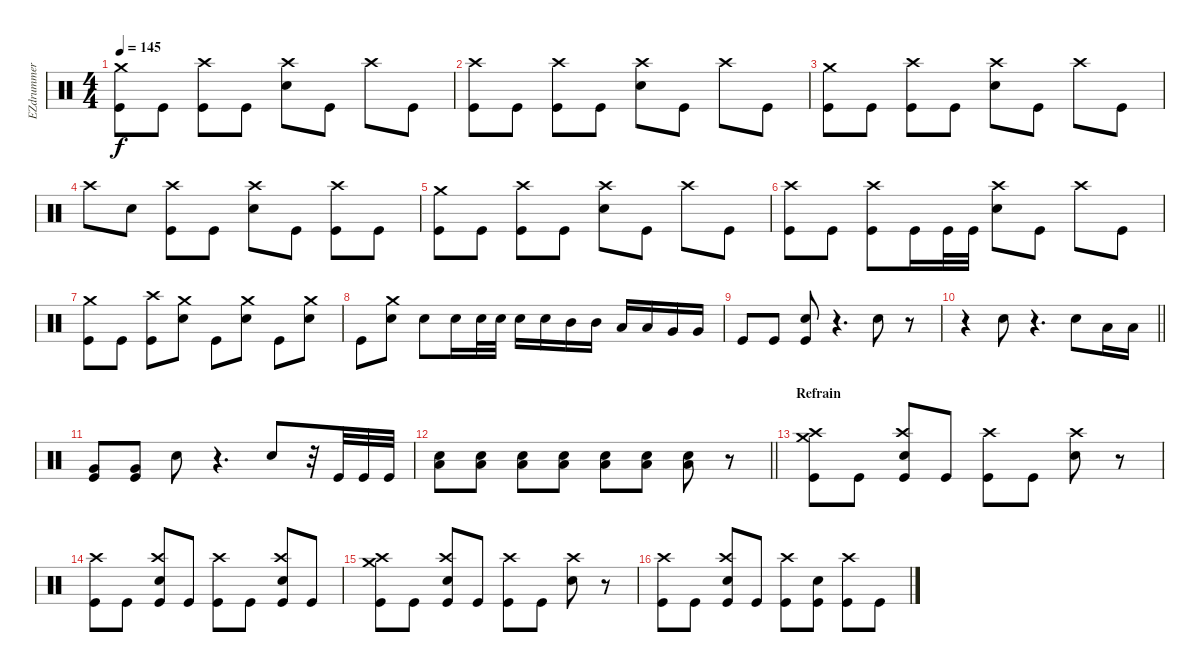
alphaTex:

\track ("EZdrummer 01" "EZdrummer ") {instrument percussion}
\staff {score}
\articulation defaults
\ts (4 4)
\tempo 145
\clef neutral
\ks c
("Kick (hit)" "Crash medium (hit)").8{dy f} "Kick (hit)".8 ("Kick (hit)" "Crash high (hit)").8 "Kick (hit)".8 ("Snare (hit) 2" "Crash high (hit)").8 "Kick (hit)".8 "Crash high (hit)".8 "Kick (hit)".8 |
("Kick (hit)" "Crash high (hit)").8 "Kick (hit)".8 ("Kick (hit)" "Crash high (hit)").8 "Kick (hit)".8 ("Snare (hit) 2" "Crash high (hit)").8 "Kick (hit)".8 "Crash high (hit)".8 "Kick (hit)".8 |
("Kick (hit)" "Crash medium (hit)").8 "Kick (hit)".8 ("Kick (hit)" "Crash high (hit)").8 "Kick (hit)".8 ("Snare (hit) 2" "Crash high (hit)").8 "Kick (hit)".8 "Crash high (hit)".8 "Kick (hit)".8 |
"Crash high (hit)".8 "Snare (hit) 2".8 ("Kick (hit)" "Crash high (hit)").8 "Kick (hit)".8 ("Snare (hit) 2" "Crash high (hit)").8 "Kick (hit)".8 ("Kick (hit)" "Crash high (hit)").8 "Kick (hit)".8 |
("Crash medium (hit)" "Kick (hit)").8 "Kick (hit)".8 ("Crash high (hit)" "Kick (hit)").8 "Kick (hit)".8 ("Crash high (hit)" "Snare (hit) 2").8 "Kick (hit)".8 "Crash high (hit)".8 "Kick (hit)".8 |
("Crash high (hit)" "Kick (hit)").8 "Kick (hit)".8 ("Crash high (hit)" "Kick (hit)").8 "Kick (hit)".16 "Kick (hit)".32 "Kick (hit)".32 ("Crash high (hit)" "Snare (hit) 2").8 "Kick (hit)".8 "Crash high (hit)".8 "Kick (hit)".8 |
("Crash medium (hit)" "Kick (hit)").8 "Kick (hit)".8 ("Crash high (hit)" "Kick (hit)").8 ("Snare (hit) 2" "Crash medium (hit)").8 "Kick (hit)".8 ("Snare (hit) 2" "Crash medium (hit)").8 "Kick (hit)".8 ("Snare (hit) 2" "Crash medium (hit)").8 |
"Kick (hit)".8 ("Snare (hit) 2" "Crash medium (hit)").8 "Snare (hit) 2".8 "Snare (hit) 2".16 "Snare (hit) 2".32 "Snare (hit) 2".32 "Snare (hit) 2".16 "Snare (hit) 2".16 "Mid Tom (hit)".16 "Mid Tom (hit)".16 "Low Tom (hit)".16 "Low Tom (hit)".16 "Very Low Tom (hit)".16 "Very Low Tom (hit)".16 |
"Kick (hit)".8 "Kick (hit)".8 ("Kick (hit)" "Snare (hit) 2").8 r.4{d} "Snare (hit) 2".8 r.8 |
\barLineRight lightlight
r.4 "Snare (hit) 2".8 r.4{d} "Snare (hit) 2".8 "Low Tom (hit)".16 "Low Tom (hit)".16 |
("Very Low Tom (hit)" "Kick (hit)").8 ("Kick (hit)" "Very Low Tom (hit)").8 "Snare (hit) 2".8 r.4{d} "Snare (hit) 2".8 r.32 "Kick (hit)".32 "Kick (hit)".32 "Kick (hit)".32 |
\barLineRight lightlight
("Snare (hit) 2" "Low Floor Tom (hit)").8 ("Snare (hit) 2" "Low Floor Tom (hit)").8 ("Snare (hit) 2" "Low Floor Tom (hit)").8 ("Snare (hit) 2" "Low Floor Tom (hit)").8 ("Snare (hit) 2" "Low Floor Tom (hit)").8 ("Snare (hit) 2" "Low Floor Tom (hit)").8 ("Snare (hit) 2" "Low Floor Tom (hit)").8 r.8 |
\section ("" "Refrain")
("Kick (hit)" "Crash high (hit)" "Crash medium (hit)").8 "Kick (hit)".8 ("Kick (hit)" "Snare (hit) 2" "Crash high (hit)").8 "Kick (hit)".8 ("Kick (hit)" "Crash high (hit)").8 "Kick (hit)".8 ("Snare (hit) 2" "Crash high (hit)").8 r.8 |
("Kick (hit)" "Crash high (hit)").8 "Kick (hit)".8 ("Kick (hit)" "Snare (hit) 2" "Crash high (hit)").8 "Kick (hit)".8 ("Kick (hit)" "Crash high (hit)").8 "Kick (hit)".8 ("Kick (hit)" "Snare (hit) 2" "Crash high (hit)").8 "Kick (hit)".8 |
("Kick (hit)" "Crash high (hit)" "Crash medium (hit)").8 "Kick (hit)".8 ("Kick (hit)" "Snare (hit) 2" "Crash high (hit)").8 "Kick (hit)".8 ("Crash high (hit)" "Kick (hit)").8 "Kick (hit)".8 ("Snare (hit) 2" "Crash high (hit)").8 r.8 |
("Kick (hit)" "Crash high (hit)").8 "Kick (hit)".8 ("Kick (hit)" "Snare (hit) 2" "Crash high (hit)").8 "Kick (hit)".8 ("Kick (hit)" "Crash high (hit)").8 ("Kick (hit)" "Snare (hit) 2").8 ("Kick (hit)" "Crash high (hit)").8 "Kick (hit)".8
